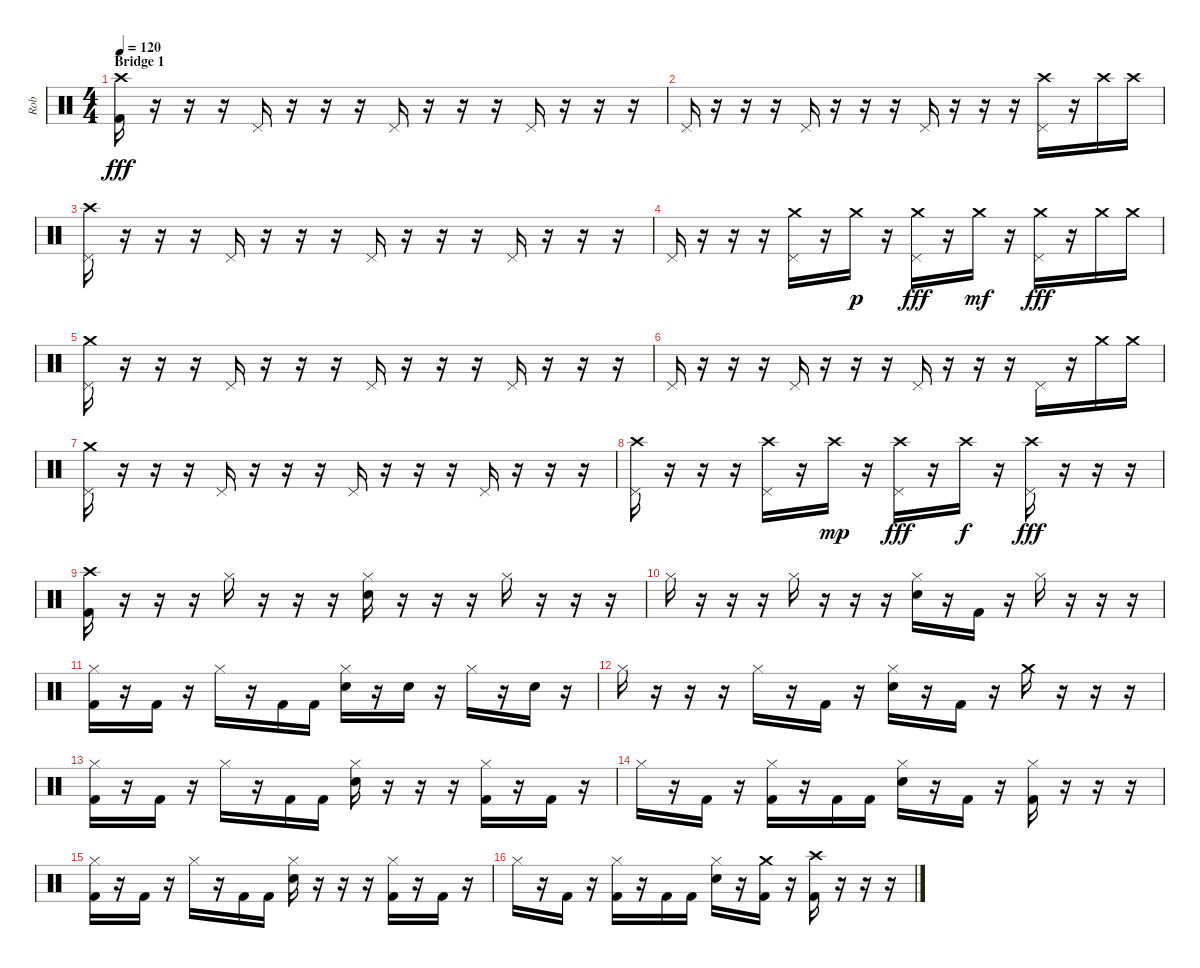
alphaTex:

\track ("Rob" "Rob") {instrument percussion}
\staff {score}
\articulation defaults
\ts (4 4)
\section ("" "Bridge 1")
\tempo 120
\clef neutral
\ks c
("Crash high (hit)" "Kick (hit) 2").16{dy fff} r.16 r.16 r.16 "Pedal Hi-Hat (hit)".16 r.16 r.16 r.16 "Pedal Hi-Hat (hit)".16 r.16 r.16 r.16 "Pedal Hi-Hat (hit)".16 r.16 r.16 r.16 |
"Pedal Hi-Hat (hit)".16 r.16 r.16 r.16 "Pedal Hi-Hat (hit)".16 r.16 r.16 r.16 "Pedal Hi-Hat (hit)".16 r.16 r.16 r.16 ("Crash high (hit)" "Pedal Hi-Hat (hit)").16 r.16 "Crash high (hit)".16 "Crash high (hit)".16 |
("Crash high (hit)" "Pedal Hi-Hat (hit)").16 r.16 r.16 r.16 "Pedal Hi-Hat (hit)".16 r.16 r.16 r.16 "Pedal Hi-Hat (hit)".16 r.16 r.16 r.16 "Pedal Hi-Hat (hit)".16 r.16 r.16 r.16 |
"Pedal Hi-Hat (hit)".16 r.16 r.16 r.16 ("Crash medium (hit)" "Pedal Hi-Hat (hit)").16 r.16 "Crash medium (hit)".16{dy p} r.16 ("Crash medium (hit)" "Pedal Hi-Hat (hit)").16{dy fff} r.16 "Crash medium (hit)".16{dy mf} r.16 ("Crash medium (hit)" "Pedal Hi-Hat (hit)").16{dy fff} r.16 "Crash medium (hit)".16 "Crash medium (hit)".16 |
("Crash medium (hit)" "Pedal Hi-Hat (hit)").16 r.16 r.16 r.16 "Pedal Hi-Hat (hit)".16 r.16 r.16 r.16 "Pedal Hi-Hat (hit)".16 r.16 r.16 r.16 "Pedal Hi-Hat (hit)".16 r.16 r.16 r.16 |
"Pedal Hi-Hat (hit)".16 r.16 r.16 r.16 "Pedal Hi-Hat (hit)".16 r.16 r.16 r.16 "Pedal Hi-Hat (hit)".16 r.16 r.16 r.16 "Pedal Hi-Hat (hit)".16 r.16 "Crash medium (hit)".16 "Crash medium (hit)".16 |
("Crash medium (hit)" "Pedal Hi-Hat (hit)").16 r.16 r.16 r.16 "Pedal Hi-Hat (hit)".16 r.16 r.16 r.16 "Pedal Hi-Hat (hit)".16 r.16 r.16 r.16 "Pedal Hi-Hat (hit)".16 r.16 r.16 r.16 |
("Crash high (hit)" "Pedal Hi-Hat (hit)").16 r.16 r.16 r.16 ("Crash high (hit)" "Pedal Hi-Hat (hit)").16 r.16 "Crash high (hit)".16{dy mp} r.16 ("Crash high (hit)" "Pedal Hi-Hat (hit)").16{dy fff} r.16 "Crash high (hit)".16{dy f} r.16 ("Crash high (hit)" "Pedal Hi-Hat (hit)").16{dy fff} r.16 r.16 r.16 |
("Crash high (hit)" "Kick (hit) 2").16 r.16 r.16 r.16 "Hi-Hat (closed)".16 r.16 r.16 r.16 ("Hi-Hat (closed)" "Electric Snare (hit)").16 r.16 r.16 r.16 "Hi-Hat (closed)".16 r.16 r.16 r.16 |
"Hi-Hat (closed)".16 r.16 r.16 r.16 "Hi-Hat (closed)".16 r.16 r.16 r.16 ("Hi-Hat (closed)" "Electric Snare (hit)").16 r.16 "Kick (hit) 2".16 r.16 "Hi-Hat (closed)".16 r.16 r.16 r.16 |
("Hi-Hat (closed)" "Kick (hit) 2").16 r.16 "Kick (hit) 2".16 r.16 "Hi-Hat (closed)".16 r.16 "Kick (hit) 2".16 "Kick (hit) 2".16 ("Hi-Hat (closed)" "Electric Snare (hit)").16 r.16 "Electric Snare (hit)".16 r.16 "Hi-Hat (closed)".16 r.16 "Electric Snare (hit)".16 r.16 |
"Hi-Hat (closed)".16 r.16 r.16 r.16 "Hi-Hat (closed)".16 r.16 "Kick (hit) 2".16 r.16 ("Hi-Hat (closed)" "Electric Snare (hit)").16 r.16 "Kick (hit) 2".16 r.16 "Crash medium (hit)".16 r.16 r.16 r.16 |
("Hi-Hat (closed)" "Kick (hit) 2").16 r.16 "Kick (hit) 2".16 r.16 "Hi-Hat (closed)".16 r.16 "Kick (hit) 2".16 "Kick (hit) 2".16 ("Hi-Hat (closed)" "Electric Snare (hit)").16 r.16 r.16 r.16 ("Hi-Hat (closed)" "Kick (hit) 2").16 r.16 "Kick (hit) 2".16 r.16 |
"Hi-Hat (closed)".16 r.16 "Kick (hit) 2".16 r.16 ("Hi-Hat (closed)" "Kick (hit) 2").16 r.16 "Kick (hit) 2".16 "Kick (hit) 2".16 ("Hi-Hat (closed)" "Electric Snare (hit)").16 r.16 "Kick (hit) 2".16 r.16 ("Hi-Hat (closed)" "Kick (hit) 2").16 r.16 r.16 r.16 |
("Hi-Hat (closed)" "Kick (hit) 2").16 r.16 "Kick (hit) 2".16 r.16 "Hi-Hat (closed)".16 r.16 "Kick (hit) 2".16 "Kick (hit) 2".16 ("Hi-Hat (closed)" "Electric Snare (hit)").16 r.16 r.16 r.16 ("Hi-Hat (closed)" "Kick (hit) 2").16 r.16 "Kick (hit) 2".16 r.16 |
"Hi-Hat (closed)".16 r.16 "Kick (hit) 2".16 r.16 ("Hi-Hat (closed)" "Kick (hit) 2").16 r.16 "Kick (hit) 2".16 "Kick (hit) 2".16 ("Hi-Hat (closed)" "Electric Snare (hit)").16 r.16 ("Crash medium (hit)" "Kick (hit) 2").16 r.16 ("Crash high (hit)" "Kick (hit) 2").16 r.16 r.16 r.16
